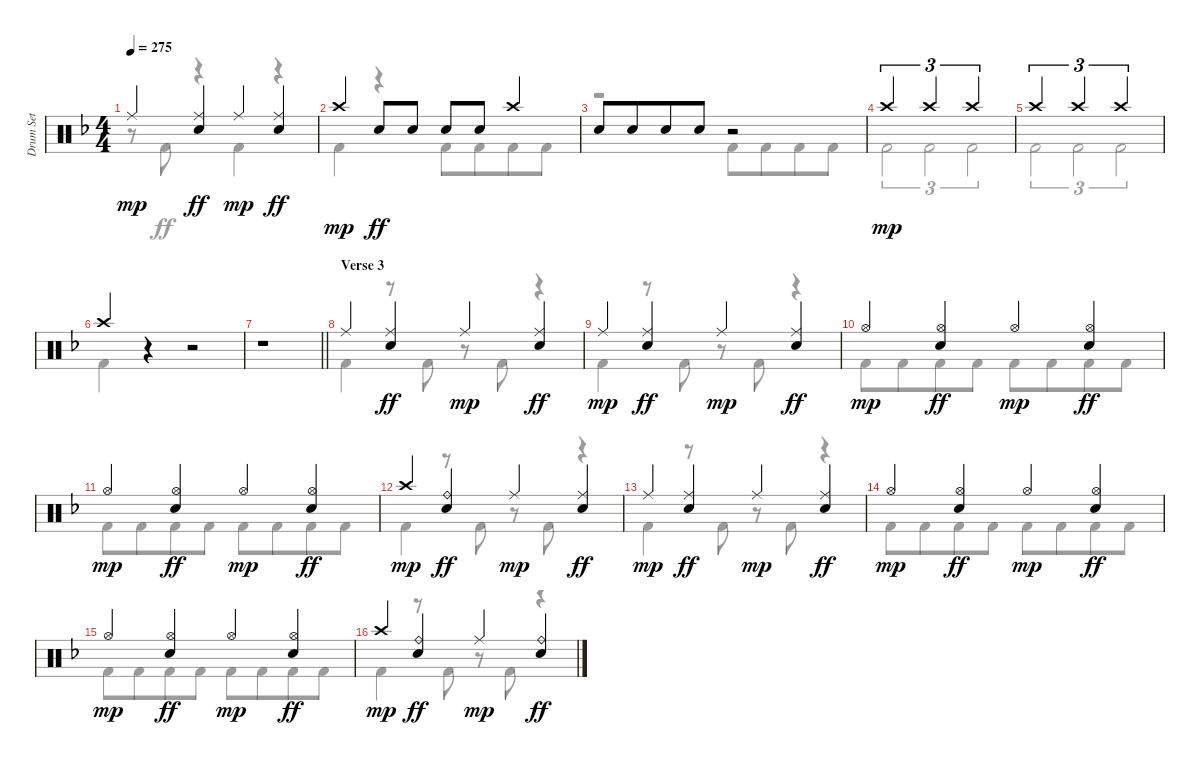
\track ("Drum Set" "Drum Set") {instrument percussion}
\staff {score}
\articulation defaults
\voice
\ts (4 4)
\tempo 275
\clef neutral
\ks dminor "Ride (middle)".4{dy mp}
("Ride (middle)" "Electric Snare (hit)").4{dy ff} "Ride (middle)".4{dy mp} ("Ride (middle)" "Electric Snare (hit)").4{dy ff} |
"Crash high (hit)".4{dy mp} "Electric Snare (hit)".8{dy ff} "Electric Snare (hit)".8 "Electric Snare (hit)".8 "Electric Snare (hit)".8 "Crash high (hit)".4 |
"Electric Snare (hit)".8 "Electric Snare (hit)".8{beam merge} "Electric Snare (hit)".8 "Electric Snare (hit)".8 r.2 |
"Crash high (hit)".2{tu (3 2) dy mp} "Crash high (hit)".2{tu (3 2)} "Crash high (hit)".2{tu (3 2)} |
"Crash high (hit)".2{tu (3 2)} "Crash high (hit)".2{tu (3 2)} "Crash high (hit)".2{tu (3 2)} |
"Crash high (hit)".4 r.4 r.2 |
\barLineRight lightlight
r.1 |
\section ("" "Verse 3")
"Ride (middle)".4 ("Ride (middle)" "Electric Snare (hit)").4{dy ff} "Ride (middle)".4{dy mp} ("Ride (middle)" "Electric Snare (hit)").4{dy ff} |
"Ride (middle)".4{dy mp} ("Ride (middle)" "Electric Snare (hit)").4{dy ff} "Ride (middle)".4{dy mp} ("Ride (middle)" "Electric Snare (hit)").4{dy ff} |
"Hi-Hat (open)".4{dy mp} ("Hi-Hat (open)" "Electric Snare (hit)").4{dy ff} "Hi-Hat (open)".4{dy mp} ("Hi-Hat (open)" "Electric Snare (hit)").4{dy ff} |
"Hi-Hat (open)".4{dy mp} ("Hi-Hat (open)" "Electric Snare (hit)").4{dy ff} "Hi-Hat (open)".4{dy mp} ("Hi-Hat (open)" "Electric Snare (hit)").4{dy ff} |
"Crash high (hit)".4{dy mp} ("Ride (bell)" "Electric Snare (hit)").4{dy ff} "Ride (middle)".4{dy mp} ("Ride (middle)" "Electric Snare (hit)").4{dy ff} |
"Ride (middle)".4{dy mp} ("Ride (middle)" "Electric Snare (hit)").4{dy ff} "Ride (middle)".4{dy mp} ("Ride (middle)" "Electric Snare (hit)").4{dy ff} |
"Hi-Hat (open)".4{dy mp} ("Hi-Hat (open)" "Electric Snare (hit)").4{dy ff} "Hi-Hat (open)".4{dy mp} ("Hi-Hat (open)" "Electric Snare (hit)").4{dy ff} |
"Hi-Hat (open)".4{dy mp} ("Hi-Hat (open)" "Electric Snare (hit)").4{dy ff} "Hi-Hat (open)".4{dy mp} ("Hi-Hat (open)" "Electric Snare (hit)").4{dy ff} |
"Crash high (hit)".4{dy mp} ("Ride (bell)" "Electric Snare (hit)").4{dy ff} "Ride (middle)".4{dy mp} ("Ride (bell)" "Electric Snare (hit)").4{dy ff}
\voice
\clef neutral
\ottava regular
\simile none
\ks dminor
r.8{dy ff} "Kick (hit) 2".8 r.4 "Kick (hit) 2".4 r.4 |
"Kick (hit) 2".4 r.4 "Kick (hit) 2".8 "Kick (hit) 2".8{beam merge} "Kick (hit) 2".8 "Kick (hit) 2".8 |
r.2 "Kick (hit) 2".8 "Kick (hit) 2".8{beam merge} "Kick (hit) 2".8 "Kick (hit) 2".8 |
"Kick (hit) 2".2{tu (3 2)} "Kick (hit) 2".2{tu (3 2)} "Kick (hit) 2".2{tu (3 2)} |
"Kick (hit) 2".2{tu (3 2)} "Kick (hit) 2".2{tu (3 2)} "Kick (hit) 2".2{tu (3 2)} |
"Kick (hit) 2".4 r.4 r.2 |
\barLineRight lightlight
|
"Kick (hit) 2".4 r.8 "Kick (hit) 2".8 r.8 "Kick (hit) 2".8 r.4 |
"Kick (hit) 2".4 r.8 "Kick (hit) 2".8 r.8 "Kick (hit) 2".8 r.4 |
"Kick (hit) 2".8 "Kick (hit) 2".8{beam merge} "Kick (hit) 2".8 "Kick (hit) 2".8 "Kick (hit) 2".8 "Kick (hit) 2".8{beam merge} "Kick (hit) 2".8 "Kick (hit) 2".8 |
"Kick (hit) 2".8 "Kick (hit) 2".8{beam merge} "Kick (hit) 2".8 "Kick (hit) 2".8 "Kick (hit) 2".8 "Kick (hit) 2".8{beam merge} "Kick (hit) 2".8 "Kick (hit) 2".8 |
"Kick (hit) 2".4 r.8 "Kick (hit) 2".8 r.8 "Kick (hit) 2".8 r.4 |
"Kick (hit) 2".4 r.8 "Kick (hit) 2".8 r.8 "Kick (hit) 2".8 r.4 |
"Kick (hit) 2".8 "Kick (hit) 2".8{beam merge} "Kick (hit) 2".8 "Kick (hit) 2".8 "Kick (hit) 2".8 "Kick (hit) 2".8{beam merge} "Kick (hit) 2".8 "Kick (hit) 2".8 |
"Kick (hit) 2".8 "Kick (hit) 2".8{beam merge} "Kick (hit) 2".8 "Kick (hit) 2".8 "Kick (hit) 2".8 "Kick (hit) 2".8{beam merge} "Kick (hit) 2".8 "Kick (hit) 2".8 |
"Kick (hit) 2".4 r.8 "Kick (hit) 2".8 r.8 "Kick (hit) 2".8 r.4
